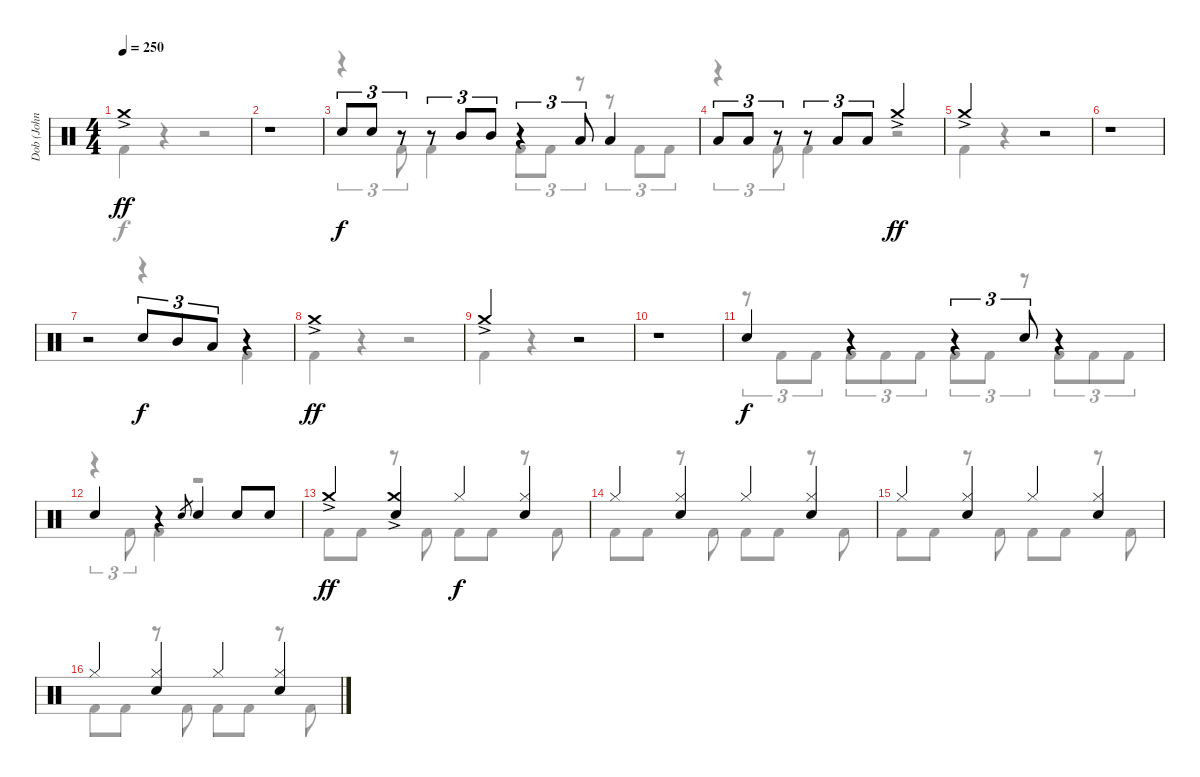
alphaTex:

\track ("Dob (John Macaluso)" "Dob (John ") {instrument percussion}
\staff {score}
\articulation defaults
\voice
\ts (4 4)
\tempo 250
\clef neutral
\ks c "Crash medium (hit)"{ac}.1{dy ff}
|
r.1 |
"Electric Snare (hit)".8{tu (3 2) dy f} "Electric Snare (hit)".8{tu (3 2)} r.8{tu (3 2)} r.8{tu (3 2)} "Mid Tom (hit)".8{tu (3 2)} "Mid Tom (hit)".8{tu (3 2)} r.4{tu (3 2)} "Low Tom (hit)".8{tu (3 2)} "Low Tom (hit)".4 |
"Low Tom (hit)".8{tu (3 2)} "Low Tom (hit)".8{tu (3 2)} r.8{tu (3 2)} r.8{tu (3 2)} "Low Tom (hit)".8{tu (3 2)} "Low Tom (hit)".8{tu (3 2)} "Crash medium (hit)"{ac}.2{dy ff} |
"Crash medium (hit)"{ac}.2 r.2 |
r.1 |
r.2 "Electric Snare (hit)".8{tu (3 2) dy f} "Mid Tom (hit)".8{tu (3 2)} "Low Tom (hit)".8{tu (3 2)} r.4 |
"Crash medium (hit)"{ac}.1{dy ff} |
"Crash medium (hit)"{ac}.2 r.2 |
r.1 |
"Electric Snare (hit)".4{dy f} r.4 r.4{tu (3 2)} "Electric Snare (hit)".8{tu (3 2)} r.4 |
"Electric Snare (hit)".4 r.4 "Electric Snare (hit)".8{gr} "Electric Snare (hit)".4 "Electric Snare (hit)".8 "Electric Snare (hit)".8 |
"Crash medium (hit)"{ac}.4{dy ff} ("Crash medium (hit)"{ac} "Electric Snare (hit)").4 "Hi-Hat (closed)".4{dy f} ("Hi-Hat (closed)" "Electric Snare (hit)").4 |
"Hi-Hat (closed)".4 ("Hi-Hat (closed)" "Electric Snare (hit)").4 "Hi-Hat (closed)".4 ("Hi-Hat (closed)" "Electric Snare (hit)").4 |
"Hi-Hat (closed)".4 ("Hi-Hat (closed)" "Electric Snare (hit)").4 "Hi-Hat (closed)".4 ("Hi-Hat (closed)" "Electric Snare (hit)").4 |
"Hi-Hat (closed)".4 ("Hi-Hat (closed)" "Electric Snare (hit)").4 "Hi-Hat (closed)".4 ("Hi-Hat (closed)" "Electric Snare (hit)").4
\voice
\clef neutral
\ottava regular
\simile none
\ks c "Kick (hit) 2".4{dy f}
r.4 r.2 |
r.1 |
r.4{tu (3 2)} "Kick (hit) 2".8{tu (3 2)} "Kick (hit) 2".4 "Kick (hit) 2".8{tu (3 2)} "Kick (hit) 2".8{tu (3 2)} r.8{tu (3 2)} r.8{tu (3 2)} "Kick (hit) 2".8{tu (3 2)} "Kick (hit) 2".8{tu (3 2)} |
r.4{tu (3 2)} "Kick (hit) 2".8{tu (3 2)} "Kick (hit) 2".4 r.2 |
"Kick (hit) 2".4 r.4 r.2 |
r.1 |
r.2 r.4 "Kick (hit) 2".4 |
"Kick (hit) 2".4 r.4 r.2 |
"Kick (hit) 2".4 r.4 r.2 |
r.1 |
r.8{tu (3 2)} "Kick (hit) 2".8{tu (3 2)} "Kick (hit) 2".8{tu (3 2)} "Kick (hit) 2".8{tu (3 2)} "Kick (hit) 2".8{tu (3 2)} "Kick (hit) 2".8{tu (3 2)} "Kick (hit) 2".8{tu (3 2)} "Kick (hit) 2".8{tu (3 2)} r.8{tu (3 2)} "Kick (hit) 2".8{tu (3 2)} "Kick (hit) 2".8{tu (3 2)} "Kick (hit) 2".8{tu (3 2)} |
r.4{tu (3 2)} "Kick (hit) 2".8{tu (3 2)} "Kick (hit) 2".4 r.2 |
"Kick (hit) 2".8 "Kick (hit) 2".8 r.8 "Kick (hit) 2".8 "Kick (hit) 2".8 "Kick (hit) 2".8 r.8 "Kick (hit) 2".8 |
"Kick (hit) 2".8 "Kick (hit) 2".8 r.8 "Kick (hit) 2".8 "Kick (hit) 2".8 "Kick (hit) 2".8 r.8 "Kick (hit) 2".8 |
"Kick (hit) 2".8 "Kick (hit) 2".8 r.8 "Kick (hit) 2".8 "Kick (hit) 2".8 "Kick (hit) 2".8 r.8 "Kick (hit) 2".8 |
"Kick (hit) 2".8 "Kick (hit) 2".8 r.8 "Kick (hit) 2".8 "Kick (hit) 2".8 "Kick (hit) 2".8 r.8 "Kick (hit) 2".8
